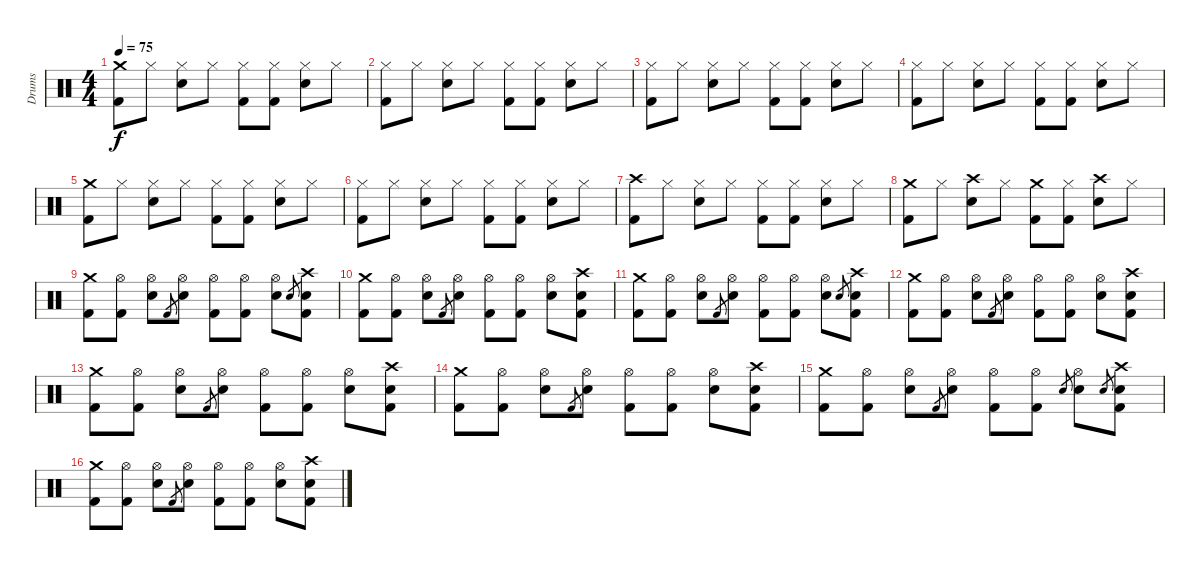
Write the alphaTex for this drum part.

\track ("Drums" "Drums") {instrument percussion}
\staff {score}
\articulation defaults
\ts (4 4)
\tempo 75
\clef neutral
\ks c
("Crash medium (hit)" "Kick (hit) 2").8{dy f} "Hi-Hat (closed)".8 ("Hi-Hat (closed)" "Snare (hit) 2").8 "Hi-Hat (closed)".8 ("Hi-Hat (closed)" "Kick (hit) 2").8 ("Hi-Hat (closed)" "Kick (hit) 2").8 ("Hi-Hat (closed)" "Snare (hit) 2").8 "Hi-Hat (closed)".8 |
("Hi-Hat (closed)" "Kick (hit) 2").8 "Hi-Hat (closed)".8 ("Hi-Hat (closed)" "Snare (hit) 2").8 "Hi-Hat (closed)".8 ("Hi-Hat (closed)" "Kick (hit) 2").8 ("Hi-Hat (closed)" "Kick (hit) 2").8 ("Hi-Hat (closed)" "Snare (hit) 2").8 "Hi-Hat (closed)".8 |
("Hi-Hat (closed)" "Kick (hit) 2").8 "Hi-Hat (closed)".8 ("Hi-Hat (closed)" "Snare (hit) 2").8 "Hi-Hat (closed)".8 ("Hi-Hat (closed)" "Kick (hit) 2").8 ("Hi-Hat (closed)" "Kick (hit) 2").8 ("Hi-Hat (closed)" "Snare (hit) 2").8 "Hi-Hat (closed)".8 |
("Hi-Hat (closed)" "Kick (hit) 2").8 "Hi-Hat (closed)".8 ("Hi-Hat (closed)" "Snare (hit) 2").8 "Hi-Hat (closed)".8 ("Hi-Hat (closed)" "Kick (hit) 2").8 ("Hi-Hat (closed)" "Kick (hit) 2").8 ("Hi-Hat (closed)" "Snare (hit) 2").8 "Hi-Hat (closed)".8 |
("Crash medium (hit)" "Kick (hit) 2").8 "Hi-Hat (closed)".8 ("Hi-Hat (closed)" "Snare (hit) 2").8 "Hi-Hat (closed)".8 ("Hi-Hat (closed)" "Kick (hit) 2").8 ("Hi-Hat (closed)" "Kick (hit) 2").8 ("Hi-Hat (closed)" "Snare (hit) 2").8 "Hi-Hat (closed)".8 |
("Hi-Hat (closed)" "Kick (hit) 2").8 "Hi-Hat (closed)".8 ("Hi-Hat (closed)" "Snare (hit) 2").8 "Hi-Hat (closed)".8 ("Hi-Hat (closed)" "Kick (hit) 2").8 ("Hi-Hat (closed)" "Kick (hit) 2").8 ("Hi-Hat (closed)" "Snare (hit) 2").8 "Hi-Hat (closed)".8 |
("Crash high (hit)" "Kick (hit) 2").8 "Hi-Hat (closed)".8 ("Hi-Hat (closed)" "Snare (hit) 2").8 "Hi-Hat (closed)".8 ("Hi-Hat (closed)" "Kick (hit) 2").8 ("Hi-Hat (closed)" "Kick (hit) 2").8 ("Hi-Hat (closed)" "Snare (hit) 2").8 "Hi-Hat (closed)".8 |
("Crash medium (hit)" "Kick (hit) 2").8 "Hi-Hat (closed)".8 ("Crash high (hit)" "Snare (hit) 2").8 "Hi-Hat (closed)".8 ("Crash medium (hit)" "Kick (hit) 2").8 ("Hi-Hat (closed)" "Kick (hit) 2").8 ("Crash high (hit)" "Snare (hit) 2").8 "Hi-Hat (closed)".8 |
("Crash medium (hit)" "Kick (hit) 2").8 ("Hi-Hat (open)" "Kick (hit) 2").8 ("Hi-Hat (open)" "Snare (hit) 2").8 "Kick (hit) 2".8{gr} ("Hi-Hat (open)" "Snare (hit) 2").8 ("Hi-Hat (open)" "Kick (hit) 2").8 ("Hi-Hat (open)" "Kick (hit) 2").8 ("Hi-Hat (open)" "Snare (hit) 2").8 "Snare (hit) 2".8{gr} ("Crash high (hit)" "Snare (hit) 2" "Kick (hit) 2").8 |
("Crash medium (hit)" "Kick (hit) 2").8 ("Hi-Hat (open)" "Kick (hit) 2").8 ("Hi-Hat (open)" "Snare (hit) 2").8 "Kick (hit) 2".8{gr} ("Hi-Hat (open)" "Snare (hit) 2").8 ("Hi-Hat (open)" "Kick (hit) 2").8 ("Hi-Hat (open)" "Kick (hit) 2").8 ("Hi-Hat (open)" "Snare (hit) 2").8 ("Crash high (hit)" "Snare (hit) 2" "Kick (hit) 2").8 |
("Crash medium (hit)" "Kick (hit) 2").8 ("Hi-Hat (open)" "Kick (hit) 2").8 ("Hi-Hat (open)" "Snare (hit) 2").8 "Kick (hit) 2".8{gr} ("Hi-Hat (open)" "Snare (hit) 2").8 ("Hi-Hat (open)" "Kick (hit) 2").8 ("Hi-Hat (open)" "Kick (hit) 2").8 ("Hi-Hat (open)" "Snare (hit) 2").8 "Snare (hit) 2".8{gr} ("Crash high (hit)" "Snare (hit) 2" "Kick (hit) 2").8 |
("Crash medium (hit)" "Kick (hit) 2").8 ("Hi-Hat (open)" "Kick (hit) 2").8 ("Hi-Hat (open)" "Snare (hit) 2").8 "Kick (hit) 2".8{gr} ("Hi-Hat (open)" "Snare (hit) 2").8 ("Hi-Hat (open)" "Kick (hit) 2").8 ("Hi-Hat (open)" "Kick (hit) 2").8 ("Hi-Hat (open)" "Snare (hit) 2").8 ("Crash high (hit)" "Snare (hit) 2" "Kick (hit) 2").8 |
("Crash medium (hit)" "Kick (hit) 2").8 ("Hi-Hat (open)" "Kick (hit) 2").8 ("Hi-Hat (open)" "Snare (hit) 2").8 "Kick (hit) 2".8{gr} ("Hi-Hat (open)" "Snare (hit) 2").8 ("Hi-Hat (open)" "Kick (hit) 2").8 ("Hi-Hat (open)" "Kick (hit) 2").8 ("Hi-Hat (open)" "Snare (hit) 2").8 ("Crash high (hit)" "Snare (hit) 2" "Kick (hit) 2").8 |
("Crash medium (hit)" "Kick (hit) 2").8 ("Hi-Hat (open)" "Kick (hit) 2").8 ("Hi-Hat (open)" "Snare (hit) 2").8 "Kick (hit) 2".8{gr} ("Hi-Hat (open)" "Snare (hit) 2").8 ("Hi-Hat (open)" "Kick (hit) 2").8 ("Hi-Hat (open)" "Kick (hit) 2").8 ("Hi-Hat (open)" "Snare (hit) 2").8 ("Crash high (hit)" "Snare (hit) 2" "Kick (hit) 2").8 |
("Crash medium (hit)" "Kick (hit) 2").8 ("Hi-Hat (open)" "Kick (hit) 2").8 ("Hi-Hat (open)" "Snare (hit) 2").8 "Kick (hit) 2".8{gr} ("Hi-Hat (open)" "Snare (hit) 2").8 ("Hi-Hat (open)" "Kick (hit) 2").8 ("Hi-Hat (open)" "Kick (hit) 2").8 "Snare (hit) 2".8{gr} ("Hi-Hat (open)" "Snare (hit) 2").8 "Snare (hit) 2".8{gr} ("Crash high (hit)" "Snare (hit) 2" "Kick (hit) 2").8 |
("Crash medium (hit)" "Kick (hit) 2").8 ("Hi-Hat (open)" "Kick (hit) 2").8 ("Hi-Hat (open)" "Snare (hit) 2").8 "Kick (hit) 2".8{gr} ("Hi-Hat (open)" "Snare (hit) 2").8 ("Hi-Hat (open)" "Kick (hit) 2").8 ("Hi-Hat (open)" "Kick (hit) 2").8 ("Hi-Hat (open)" "Snare (hit) 2").8 ("Crash high (hit)" "Snare (hit) 2" "Kick (hit) 2").8
